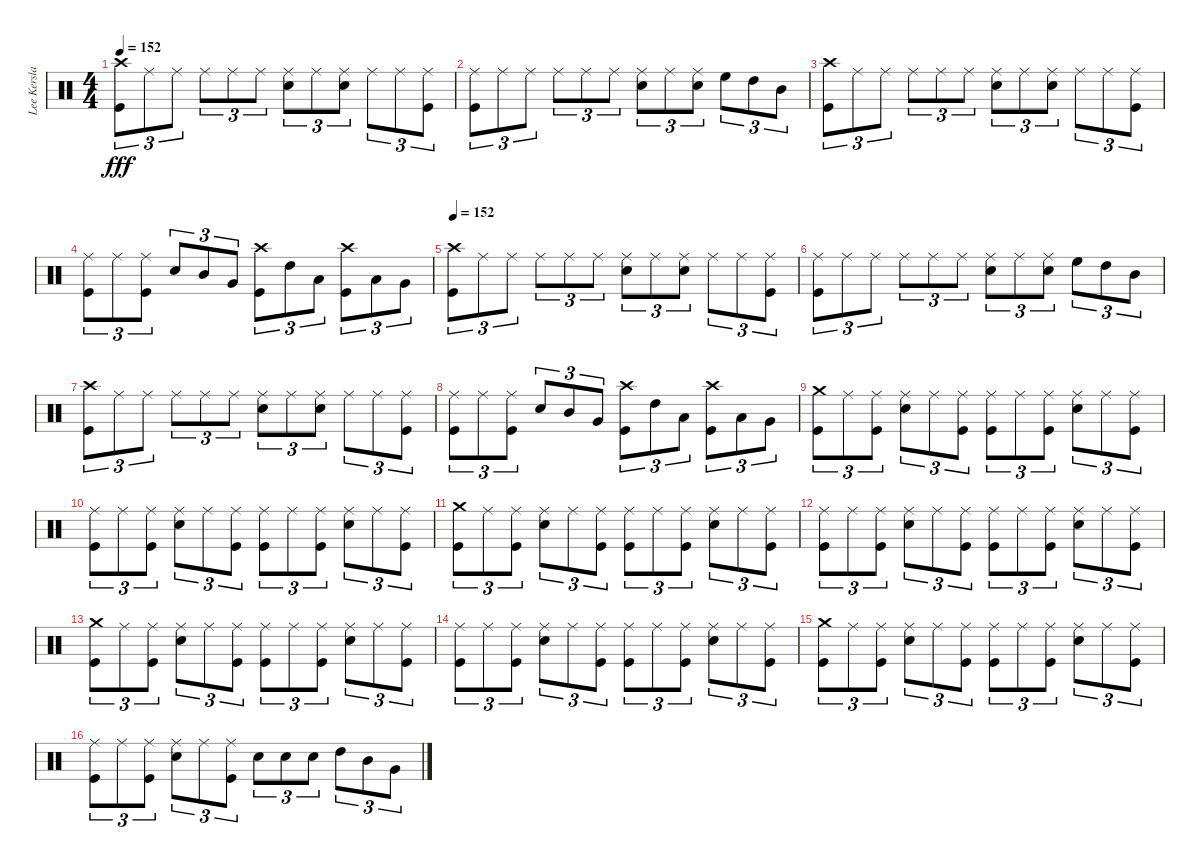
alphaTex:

\track ("Lee Kerslake" "Lee Kersla") {instrument percussion}
\staff {score}
\articulation defaults
\ts (4 4)
\tempo 152
\clef neutral
\ks c
("Kick (hit)" "Crash high (hit)").8{tu (3 2) dy fff} "Ride (middle)".8{tu (3 2)} "Ride (middle)".8{tu (3 2)} "Ride (middle)".8{tu (3 2)} "Ride (middle)".8{tu (3 2)} "Ride (middle)".8{tu (3 2)} ("Electric Snare (hit)" "Ride (middle)").8{tu (3 2)} "Ride (middle)".8{tu (3 2)} ("Ride (middle)" "Electric Snare (hit)").8{tu (3 2)} "Ride (middle)".8{tu (3 2)} "Ride (middle)".8{tu (3 2)} ("Ride (middle)" "Kick (hit)").8{tu (3 2)} |
("Kick (hit)" "Ride (middle)").8{tu (3 2)} "Ride (middle)".8{tu (3 2)} "Ride (middle)".8{tu (3 2)} "Ride (middle)".8{tu (3 2)} "Ride (middle)".8{tu (3 2)} "Ride (middle)".8{tu (3 2)} ("Electric Snare (hit)" "Ride (middle)").8{tu (3 2)} "Ride (middle)".8{tu (3 2)} ("Ride (middle)" "Electric Snare (hit)").8{tu (3 2)} "High Floor Tom (hit)".8{tu (3 2)} "High Tom (hit)".8{tu (3 2)} "Mid Tom (hit)".8{tu (3 2)} |
("Kick (hit)" "Crash high (hit)").8{tu (3 2)} "Ride (middle)".8{tu (3 2)} "Ride (middle)".8{tu (3 2)} "Ride (middle)".8{tu (3 2)} "Ride (middle)".8{tu (3 2)} "Ride (middle)".8{tu (3 2)} ("Electric Snare (hit)" "Ride (middle)").8{tu (3 2)} "Ride (middle)".8{tu (3 2)} ("Ride (middle)" "Electric Snare (hit)").8{tu (3 2)} "Ride (middle)".8{tu (3 2)} "Ride (middle)".8{tu (3 2)} ("Ride (middle)" "Kick (hit)").8{tu (3 2)} |
("Kick (hit)" "Ride (middle)").8{tu (3 2)} "Ride (middle)".8{tu (3 2)} ("Ride (middle)" "Kick (hit)").8{tu (3 2)} "Electric Snare (hit)".8{tu (3 2)} "Mid Tom (hit)".8{tu (3 2)} "Very Low Tom (hit)".8{tu (3 2)} ("Kick (hit)" "Crash high (hit)").8{tu (3 2)} "High Tom (hit)".8{tu (3 2)} "Low Tom (hit)".8{tu (3 2)} ("Crash high (hit)" "Kick (hit)").8{tu (3 2)} "Low Tom (hit)".8{tu (3 2)} "Very Low Tom (hit)".8{tu (3 2)} |
\tempo 152
("Kick (hit)" "Crash high (hit)").8{tu (3 2)} "Ride (middle)".8{tu (3 2)} "Ride (middle)".8{tu (3 2)} "Ride (middle)".8{tu (3 2)} "Ride (middle)".8{tu (3 2)} "Ride (middle)".8{tu (3 2)} ("Electric Snare (hit)" "Ride (middle)").8{tu (3 2)} "Ride (middle)".8{tu (3 2)} ("Ride (middle)" "Electric Snare (hit)").8{tu (3 2)} "Ride (middle)".8{tu (3 2)} "Ride (middle)".8{tu (3 2)} ("Ride (middle)" "Kick (hit)").8{tu (3 2)} |
("Kick (hit)" "Ride (middle)").8{tu (3 2)} "Ride (middle)".8{tu (3 2)} "Ride (middle)".8{tu (3 2)} "Ride (middle)".8{tu (3 2)} "Ride (middle)".8{tu (3 2)} "Ride (middle)".8{tu (3 2)} ("Electric Snare (hit)" "Ride (middle)").8{tu (3 2)} "Ride (middle)".8{tu (3 2)} ("Ride (middle)" "Electric Snare (hit)").8{tu (3 2)} "High Floor Tom (hit)".8{tu (3 2)} "High Tom (hit)".8{tu (3 2)} "Mid Tom (hit)".8{tu (3 2)} |
("Kick (hit)" "Crash high (hit)").8{tu (3 2)} "Ride (middle)".8{tu (3 2)} "Ride (middle)".8{tu (3 2)} "Ride (middle)".8{tu (3 2)} "Ride (middle)".8{tu (3 2)} "Ride (middle)".8{tu (3 2)} ("Electric Snare (hit)" "Ride (middle)").8{tu (3 2)} "Ride (middle)".8{tu (3 2)} ("Ride (middle)" "Electric Snare (hit)").8{tu (3 2)} "Ride (middle)".8{tu (3 2)} "Ride (middle)".8{tu (3 2)} ("Ride (middle)" "Kick (hit)").8{tu (3 2)} |
("Kick (hit)" "Ride (middle)").8{tu (3 2)} "Ride (middle)".8{tu (3 2)} ("Ride (middle)" "Kick (hit)").8{tu (3 2)} "Electric Snare (hit)".8{tu (3 2)} "Mid Tom (hit)".8{tu (3 2)} "Very Low Tom (hit)".8{tu (3 2)} ("Kick (hit)" "Crash high (hit)").8{tu (3 2)} "High Tom (hit)".8{tu (3 2)} "Low Tom (hit)".8{tu (3 2)} ("Crash high (hit)" "Kick (hit)").8{tu (3 2)} "Low Tom (hit)".8{tu (3 2)} "Very Low Tom (hit)".8{tu (3 2)} |
("Crash medium (hit)" "Kick (hit)").8{tu (3 2)} "Ride (middle)".8{tu (3 2)} ("Ride (middle)" "Kick (hit)").8{tu (3 2)} ("Ride (middle)" "Electric Snare (hit)").8{tu (3 2)} "Ride (middle)".8{tu (3 2)} ("Ride (middle)" "Kick (hit)").8{tu (3 2)} ("Ride (middle)" "Kick (hit)").8{tu (3 2)} "Ride (middle)".8{tu (3 2)} ("Ride (middle)" "Kick (hit)").8{tu (3 2)} ("Ride (middle)" "Electric Snare (hit)").8{tu (3 2)} "Ride (middle)".8{tu (3 2)} ("Ride (middle)" "Kick (hit)").8{tu (3 2)} |
("Ride (middle)" "Kick (hit)").8{tu (3 2)} "Ride (middle)".8{tu (3 2)} ("Ride (middle)" "Kick (hit)").8{tu (3 2)} ("Ride (middle)" "Electric Snare (hit)").8{tu (3 2)} "Ride (middle)".8{tu (3 2)} ("Ride (middle)" "Kick (hit)").8{tu (3 2)} ("Ride (middle)" "Kick (hit)").8{tu (3 2)} "Ride (middle)".8{tu (3 2)} ("Ride (middle)" "Kick (hit)").8{tu (3 2)} ("Ride (middle)" "Electric Snare (hit)").8{tu (3 2)} "Ride (middle)".8{tu (3 2)} ("Ride (middle)" "Kick (hit)").8{tu (3 2)} |
("Crash medium (hit)" "Kick (hit)").8{tu (3 2)} "Ride (middle)".8{tu (3 2)} ("Ride (middle)" "Kick (hit)").8{tu (3 2)} ("Ride (middle)" "Electric Snare (hit)").8{tu (3 2)} "Ride (middle)".8{tu (3 2)} ("Ride (middle)" "Kick (hit)").8{tu (3 2)} ("Ride (middle)" "Kick (hit)").8{tu (3 2)} "Ride (middle)".8{tu (3 2)} ("Ride (middle)" "Kick (hit)").8{tu (3 2)} ("Ride (middle)" "Electric Snare (hit)").8{tu (3 2)} "Ride (middle)".8{tu (3 2)} ("Ride (middle)" "Kick (hit)").8{tu (3 2)} |
("Ride (middle)" "Kick (hit)").8{tu (3 2)} "Ride (middle)".8{tu (3 2)} ("Ride (middle)" "Kick (hit)").8{tu (3 2)} ("Ride (middle)" "Electric Snare (hit)").8{tu (3 2)} "Ride (middle)".8{tu (3 2)} ("Ride (middle)" "Kick (hit)").8{tu (3 2)} ("Ride (middle)" "Kick (hit)").8{tu (3 2)} "Ride (middle)".8{tu (3 2)} ("Ride (middle)" "Kick (hit)").8{tu (3 2)} ("Ride (middle)" "Electric Snare (hit)").8{tu (3 2)} "Ride (middle)".8{tu (3 2)} ("Ride (middle)" "Kick (hit)").8{tu (3 2)} |
("Crash medium (hit)" "Kick (hit)").8{tu (3 2)} "Ride (middle)".8{tu (3 2)} ("Ride (middle)" "Kick (hit)").8{tu (3 2)} ("Ride (middle)" "Electric Snare (hit)").8{tu (3 2)} "Ride (middle)".8{tu (3 2)} ("Ride (middle)" "Kick (hit)").8{tu (3 2)} ("Ride (middle)" "Kick (hit)").8{tu (3 2)} "Ride (middle)".8{tu (3 2)} ("Ride (middle)" "Kick (hit)").8{tu (3 2)} ("Ride (middle)" "Electric Snare (hit)").8{tu (3 2)} "Ride (middle)".8{tu (3 2)} ("Ride (middle)" "Kick (hit)").8{tu (3 2)} |
("Ride (middle)" "Kick (hit)").8{tu (3 2)} "Ride (middle)".8{tu (3 2)} ("Ride (middle)" "Kick (hit)").8{tu (3 2)} ("Ride (middle)" "Electric Snare (hit)").8{tu (3 2)} "Ride (middle)".8{tu (3 2)} ("Ride (middle)" "Kick (hit)").8{tu (3 2)} ("Ride (middle)" "Kick (hit)").8{tu (3 2)} "Ride (middle)".8{tu (3 2)} ("Ride (middle)" "Kick (hit)").8{tu (3 2)} ("Ride (middle)" "Electric Snare (hit)").8{tu (3 2)} "Ride (middle)".8{tu (3 2)} ("Ride (middle)" "Kick (hit)").8{tu (3 2)} |
("Crash medium (hit)" "Kick (hit)").8{tu (3 2)} "Ride (middle)".8{tu (3 2)} ("Ride (middle)" "Kick (hit)").8{tu (3 2)} ("Ride (middle)" "Electric Snare (hit)").8{tu (3 2)} "Ride (middle)".8{tu (3 2)} ("Ride (middle)" "Kick (hit)").8{tu (3 2)} ("Ride (middle)" "Kick (hit)").8{tu (3 2)} "Ride (middle)".8{tu (3 2)} ("Ride (middle)" "Kick (hit)").8{tu (3 2)} ("Ride (middle)" "Electric Snare (hit)").8{tu (3 2)} "Ride (middle)".8{tu (3 2)} ("Ride (middle)" "Kick (hit)").8{tu (3 2)} |
("Ride (middle)" "Kick (hit)").8{tu (3 2)} "Ride (middle)".8{tu (3 2)} ("Ride (middle)" "Kick (hit)").8{tu (3 2)} ("Ride (middle)" "Electric Snare (hit)").8{tu (3 2)} "Ride (middle)".8{tu (3 2)} ("Ride (middle)" "Kick (hit)").8{tu (3 2)} "Electric Snare (hit)".8{tu (3 2)} "Electric Snare (hit)".8{tu (3 2)} "Electric Snare (hit)".8{tu (3 2)} "High Tom (hit)".8{tu (3 2)} "Mid Tom (hit)".8{tu (3 2)} "Very Low Tom (hit)".8{tu (3 2)}
